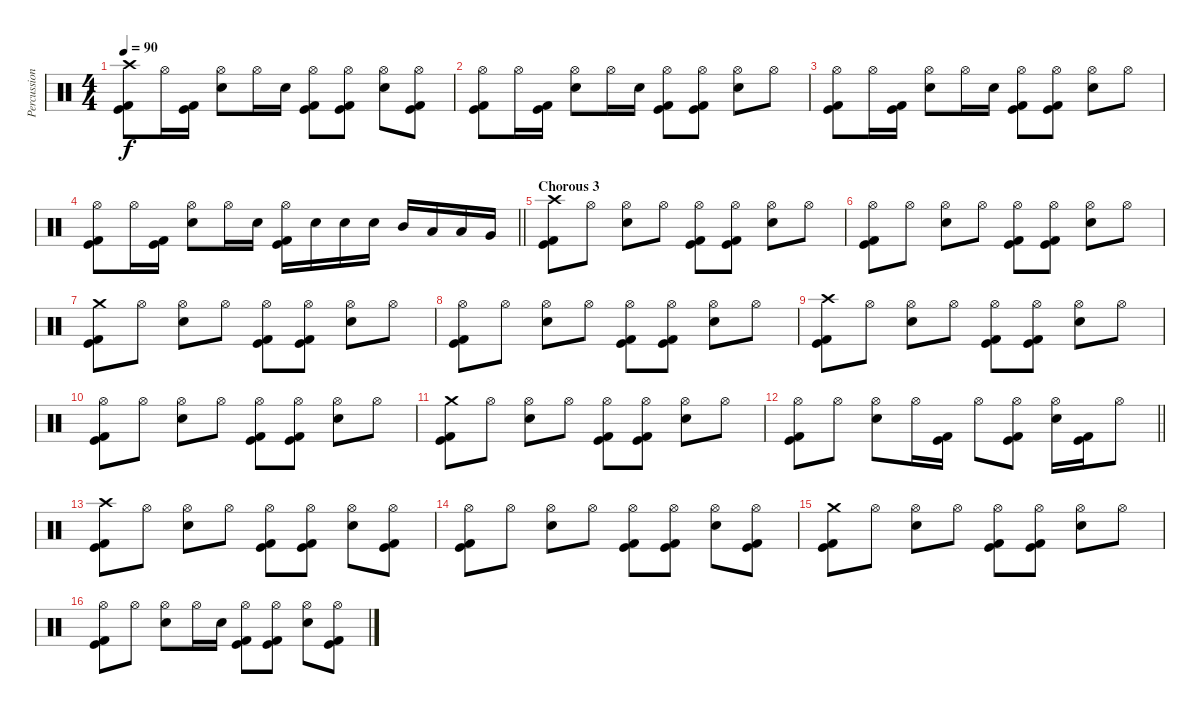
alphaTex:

\track ("Percussion" "Percussion") {instrument percussion}
\staff {score}
\articulation defaults
\ts (4 4)
\section ("" "")
\tempo 90
\clef neutral
\ks c
("Crash high (hit)" "Kick (hit)" "Kick (hit) 2").8{dy f} "Hi-Hat (open)".16 ("Kick (hit)" "Kick (hit) 2").16 ("Hi-Hat (open)" "Electric Snare (hit)").8 "Hi-Hat (open)".16 "Electric Snare (hit)".16 ("Hi-Hat (open)" "Kick (hit)" "Kick (hit) 2").8 ("Hi-Hat (open)" "Kick (hit)" "Kick (hit) 2").8 ("Hi-Hat (open)" "Electric Snare (hit)").8 ("Hi-Hat (open)" "Kick (hit)" "Kick (hit) 2").8 |
("Hi-Hat (open)" "Kick (hit)" "Kick (hit) 2").8 "Hi-Hat (open)".16 ("Kick (hit)" "Kick (hit) 2").16 ("Hi-Hat (open)" "Electric Snare (hit)").8 "Hi-Hat (open)".16 "Electric Snare (hit)".16 ("Hi-Hat (open)" "Kick (hit)" "Kick (hit) 2").8 ("Hi-Hat (open)" "Kick (hit)" "Kick (hit) 2").8 ("Hi-Hat (open)" "Electric Snare (hit)").8 "Hi-Hat (open)".8 |
("Hi-Hat (open)" "Kick (hit)" "Kick (hit) 2").8 "Hi-Hat (open)".16 ("Kick (hit)" "Kick (hit) 2").16 ("Hi-Hat (open)" "Electric Snare (hit)").8 "Hi-Hat (open)".16 "Electric Snare (hit)".16 ("Hi-Hat (open)" "Kick (hit)" "Kick (hit) 2").8 ("Hi-Hat (open)" "Kick (hit)" "Kick (hit) 2").8 ("Hi-Hat (open)" "Electric Snare (hit)").8 "Hi-Hat (open)".8 |
\barLineRight lightlight
("Hi-Hat (open)" "Kick (hit)" "Kick (hit) 2").8 "Hi-Hat (open)".16 ("Kick (hit)" "Kick (hit) 2").16 ("Hi-Hat (open)" "Electric Snare (hit)").8 "Hi-Hat (open)".16 "Electric Snare (hit)".16 ("Hi-Hat (open)" "Kick (hit)" "Kick (hit) 2").16 "Electric Snare (hit)".16 "Electric Snare (hit)".16 "Electric Snare (hit)".16 "Mid Tom (hit)".16 "Low Tom (hit)".16 "Low Tom (hit)".16 "Very Low Tom (hit)".16 |
\section ("" "Chorous 3")
("Crash high (hit)" "Kick (hit)" "Kick (hit) 2").8 "Hi-Hat (open)".8 ("Hi-Hat (open)" "Electric Snare (hit)").8 "Hi-Hat (open)".8 ("Hi-Hat (open)" "Kick (hit)" "Kick (hit) 2").8 ("Hi-Hat (open)" "Kick (hit)" "Kick (hit) 2").8 ("Hi-Hat (open)" "Electric Snare (hit)").8 "Hi-Hat (open)".8 |
("Hi-Hat (open)" "Kick (hit)" "Kick (hit) 2").8 "Hi-Hat (open)".8 ("Hi-Hat (open)" "Electric Snare (hit)").8 "Hi-Hat (open)".8 ("Hi-Hat (open)" "Kick (hit)" "Kick (hit) 2").8 ("Hi-Hat (open)" "Kick (hit)" "Kick (hit) 2").8 ("Hi-Hat (open)" "Electric Snare (hit)").8 "Hi-Hat (open)".8 |
("Crash medium (hit)" "Kick (hit)" "Kick (hit) 2").8 "Hi-Hat (open)".8 ("Hi-Hat (open)" "Electric Snare (hit)").8 "Hi-Hat (open)".8 ("Hi-Hat (open)" "Kick (hit)" "Kick (hit) 2").8 ("Hi-Hat (open)" "Kick (hit)" "Kick (hit) 2").8 ("Hi-Hat (open)" "Electric Snare (hit)").8 "Hi-Hat (open)".8 |
("Hi-Hat (open)" "Kick (hit)" "Kick (hit) 2").8 "Hi-Hat (open)".8 ("Hi-Hat (open)" "Electric Snare (hit)").8 "Hi-Hat (open)".8 ("Hi-Hat (open)" "Kick (hit)" "Kick (hit) 2").8 ("Hi-Hat (open)" "Kick (hit)" "Kick (hit) 2").8 ("Hi-Hat (open)" "Electric Snare (hit)").8 "Hi-Hat (open)".8 |
("Crash high (hit)" "Kick (hit)" "Kick (hit) 2").8 "Hi-Hat (open)".8 ("Hi-Hat (open)" "Electric Snare (hit)").8 "Hi-Hat (open)".8 ("Hi-Hat (open)" "Kick (hit)" "Kick (hit) 2").8 ("Hi-Hat (open)" "Kick (hit)" "Kick (hit) 2").8 ("Hi-Hat (open)" "Electric Snare (hit)").8 "Hi-Hat (open)".8 |
("Hi-Hat (open)" "Kick (hit)" "Kick (hit) 2").8 "Hi-Hat (open)".8 ("Hi-Hat (open)" "Electric Snare (hit)").8 "Hi-Hat (open)".8 ("Hi-Hat (open)" "Kick (hit)" "Kick (hit) 2").8 ("Hi-Hat (open)" "Kick (hit)" "Kick (hit) 2").8 ("Hi-Hat (open)" "Electric Snare (hit)").8 "Hi-Hat (open)".8 |
("Crash medium (hit)" "Kick (hit)" "Kick (hit) 2").8 "Hi-Hat (open)".8 ("Hi-Hat (open)" "Electric Snare (hit)").8 "Hi-Hat (open)".8 ("Hi-Hat (open)" "Kick (hit)" "Kick (hit) 2").8 ("Hi-Hat (open)" "Kick (hit)" "Kick (hit) 2").8 ("Hi-Hat (open)" "Electric Snare (hit)").8 "Hi-Hat (open)".8 |
\barLineRight lightlight
("Hi-Hat (open)" "Kick (hit)" "Kick (hit) 2").8 "Hi-Hat (open)".8 ("Hi-Hat (open)" "Electric Snare (hit)").8 "Hi-Hat (open)".16 ("Kick (hit)" "Kick (hit) 2").16 "Hi-Hat (open)".8 ("Hi-Hat (open)" "Kick (hit)" "Kick (hit) 2").8 ("Hi-Hat (open)" "Electric Snare (hit)").16 ("Kick (hit)" "Kick (hit) 2").16 "Hi-Hat (open)".8 |
\section ("" "")
("Crash high (hit)" "Kick (hit)" "Kick (hit) 2").8 "Hi-Hat (open)".8 ("Hi-Hat (open)" "Electric Snare (hit)").8 "Hi-Hat (open)".8 ("Hi-Hat (open)" "Kick (hit)" "Kick (hit) 2").8 ("Hi-Hat (open)" "Kick (hit)" "Kick (hit) 2").8 ("Hi-Hat (open)" "Electric Snare (hit)").8 ("Hi-Hat (open)" "Kick (hit)" "Kick (hit) 2").8 |
("Hi-Hat (open)" "Kick (hit)" "Kick (hit) 2").8 "Hi-Hat (open)".8 ("Hi-Hat (open)" "Electric Snare (hit)").8 "Hi-Hat (open)".8 ("Hi-Hat (open)" "Kick (hit)" "Kick (hit) 2").8 ("Hi-Hat (open)" "Kick (hit)" "Kick (hit) 2").8 ("Hi-Hat (open)" "Electric Snare (hit)").8 ("Hi-Hat (open)" "Kick (hit)" "Kick (hit) 2").8 |
("Crash medium (hit)" "Kick (hit)" "Kick (hit) 2").8 "Hi-Hat (open)".8 ("Hi-Hat (open)" "Electric Snare (hit)").8 "Hi-Hat (open)".8 ("Hi-Hat (open)" "Kick (hit)" "Kick (hit) 2").8 ("Hi-Hat (open)" "Kick (hit)" "Kick (hit) 2").8 ("Hi-Hat (open)" "Electric Snare (hit)").8 "Hi-Hat (open)".8 |
("Hi-Hat (open)" "Kick (hit)" "Kick (hit) 2").8 "Hi-Hat (open)".8 ("Hi-Hat (open)" "Electric Snare (hit)").8 "Hi-Hat (open)".16 "Electric Snare (hit)".16 ("Hi-Hat (open)" "Kick (hit)" "Kick (hit) 2").8 ("Hi-Hat (open)" "Kick (hit)" "Kick (hit) 2").8 ("Hi-Hat (open)" "Electric Snare (hit)").8 ("Hi-Hat (open)" "Kick (hit)" "Kick (hit) 2").8
